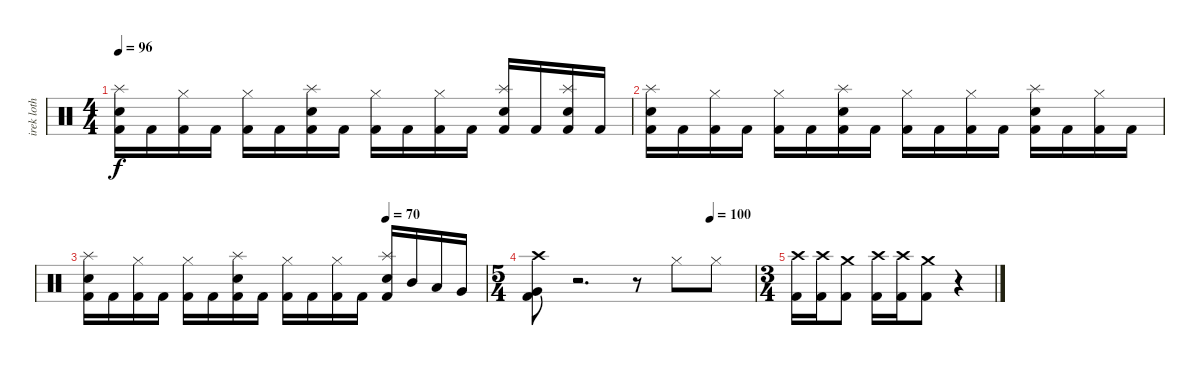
\track ("irek loth" "irek loth") {instrument percussion}
\staff {score}
\articulation defaults
\ts (4 4)
\tempo 96
\clef neutral
\ks c
("Snare (hit) 2" "Splash (hit)" "Kick (hit) 2").16{dy f} "Kick (hit) 2".16 ("Hi-Hat (closed)" "Kick (hit) 2").16 "Kick (hit) 2".16 ("Hi-Hat (closed)" "Kick (hit) 2").16 "Kick (hit) 2".16 ("Snare (hit) 2" "Splash (hit)" "Kick (hit) 2").16 "Kick (hit) 2".16 ("Hi-Hat (closed)" "Kick (hit) 2").16 "Kick (hit) 2".16 ("Hi-Hat (closed)" "Kick (hit) 2").16 "Kick (hit) 2".16 ("Snare (hit) 2" "Splash (hit)" "Kick (hit) 2").16 "Kick (hit) 2".16 ("Snare (hit) 2" "Splash (hit)" "Kick (hit) 2").16 "Kick (hit) 2".16 |
("Snare (hit) 2" "Splash (hit)" "Kick (hit) 2").16 "Kick (hit) 2".16 ("Hi-Hat (closed)" "Kick (hit) 2").16 "Kick (hit) 2".16 ("Hi-Hat (closed)" "Kick (hit) 2").16 "Kick (hit) 2".16 ("Snare (hit) 2" "Splash (hit)" "Kick (hit) 2").16 "Kick (hit) 2".16 ("Hi-Hat (closed)" "Kick (hit) 2").16 "Kick (hit) 2".16 ("Hi-Hat (closed)" "Kick (hit) 2").16 "Kick (hit) 2".16 ("Snare (hit) 2" "Splash (hit)" "Kick (hit) 2").16 "Kick (hit) 2".16 ("Hi-Hat (closed)" "Kick (hit) 2").16 "Kick (hit) 2".16 |
\tempo (70 0.75)
("Snare (hit) 2" "Splash (hit)" "Kick (hit) 2").16 "Kick (hit) 2".16 ("Hi-Hat (closed)" "Kick (hit) 2").16 "Kick (hit) 2".16 ("Hi-Hat (closed)" "Kick (hit) 2").16 "Kick (hit) 2".16 ("Snare (hit) 2" "Splash (hit)" "Kick (hit) 2").16 "Kick (hit) 2".16 ("Hi-Hat (closed)" "Kick (hit) 2").16 "Kick (hit) 2".16 ("Hi-Hat (closed)" "Kick (hit) 2").16 "Kick (hit) 2".16 ("Snare (hit) 2" "Splash (hit)" "Kick (hit) 2").16 "Mid Tom (hit)".16 "Low Tom (hit)".16 "Very Low Tom (hit)".16 |
\ts (5 4)
\tempo (100 0.8)
("Very Low Tom (hit)" "Crash high (hit)" "Kick (hit) 2").8 r.2{d} r.8 "Hi-Hat (closed)".8 "Hi-Hat (closed)".8 |
\ts (3 4)
("Crash high (hit)" "Kick (hit) 2").16 ("Crash high (hit)" "Kick (hit) 2").16 ("Crash medium (hit)" "Kick (hit) 2").8 ("Crash high (hit)" "Kick (hit) 2").16 ("Crash high (hit)" "Kick (hit) 2").16 ("Crash medium (hit)" "Kick (hit) 2").8 r.4
